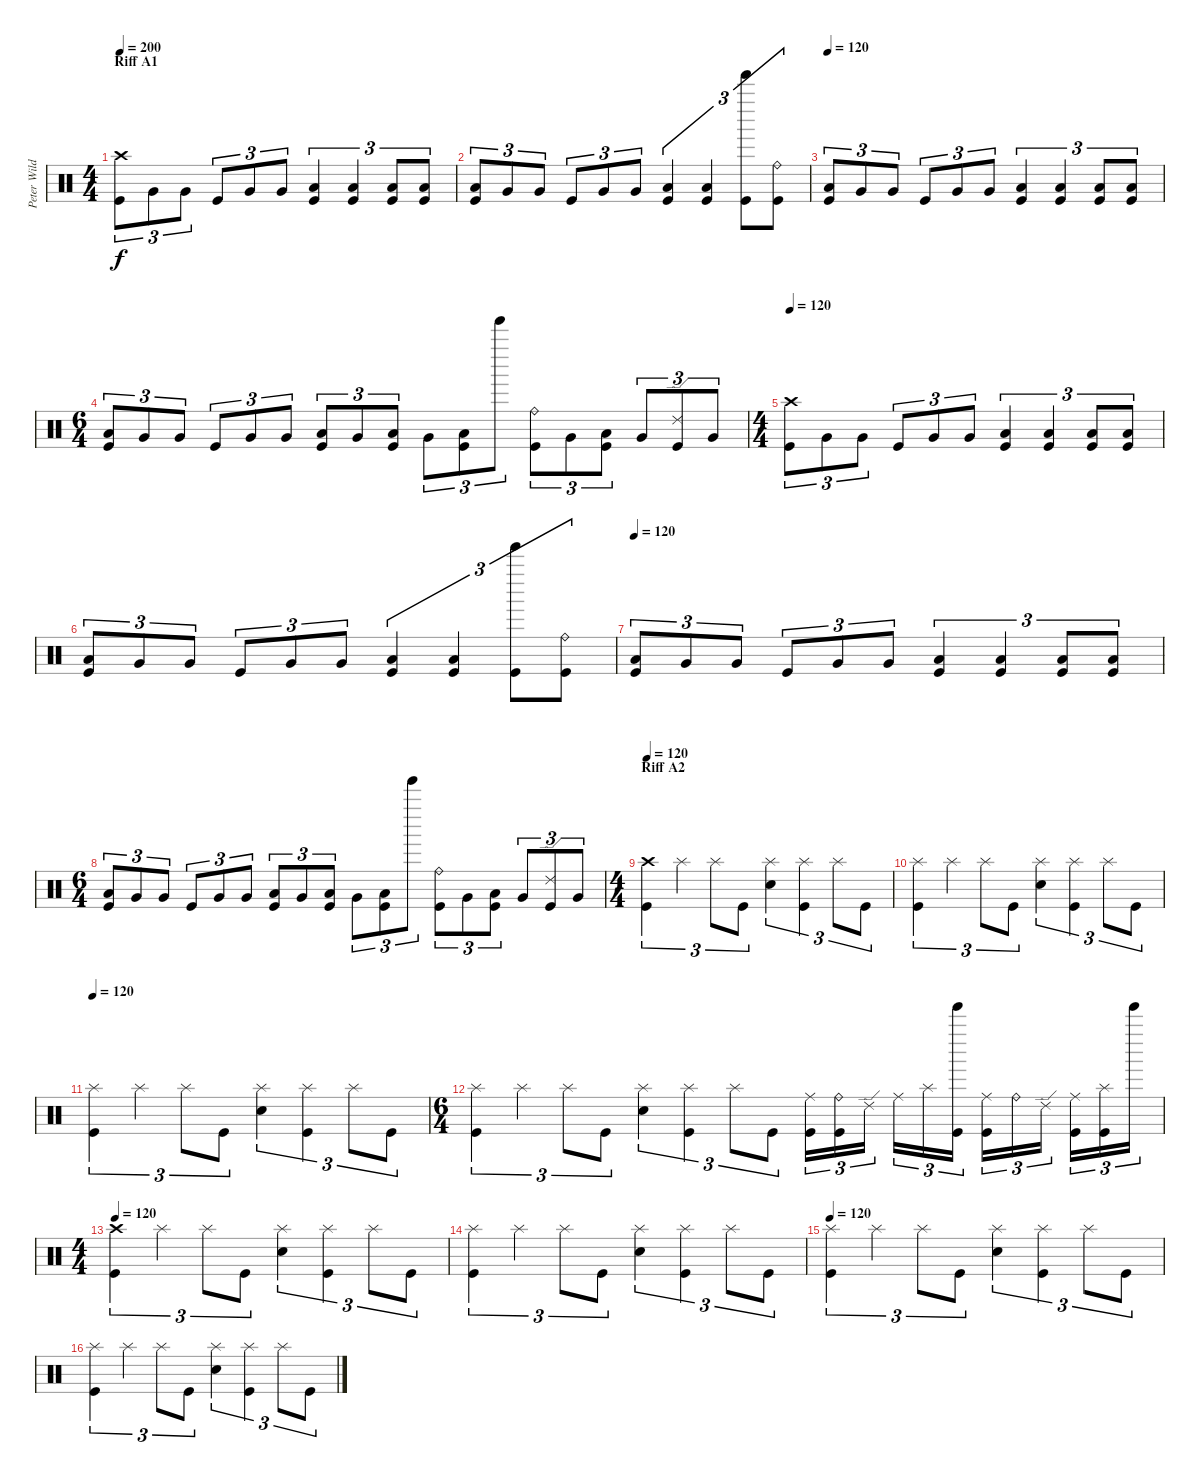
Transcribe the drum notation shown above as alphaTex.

\track ("Peter Wildoer " "Peter Wild") {instrument percussion}
\staff {score}
\articulation defaults
\ts (4 4)
\section ("" "Riff A1")
\tempo 200
\tempo 120
\tempo 200
\clef neutral
\ks c
("Crash high (hit)" "Kick (hit)").8{tu (3 2) dy f} "Very Low Tom (hit)".8{tu (3 2)} "Very Low Tom (hit)".8{tu (3 2)} "Kick (hit)".8{tu (3 2)} "Very Low Tom (hit)".8{tu (3 2)} "Very Low Tom (hit)".8{tu (3 2)} ("Low Floor Tom (hit)" "Kick (hit)").4{tu (3 2)} ("Low Floor Tom (hit)" "Kick (hit)").4{tu (3 2)} ("Low Floor Tom (hit)" "Kick (hit)").8{tu (3 2)} ("Low Floor Tom (hit)" "Kick (hit)").8{tu (3 2)} |
("Low Floor Tom (hit)" "Kick (hit)").8{tu (3 2)} "Very Low Tom (hit)".8{tu (3 2)} "Very Low Tom (hit)".8{tu (3 2)} "Kick (hit)".8{tu (3 2)} "Very Low Tom (hit)".8{tu (3 2)} "Very Low Tom (hit)".8{tu (3 2)} ("Low Floor Tom (hit)" "Kick (hit)").4{tu (3 2)} ("Low Floor Tom (hit)" "Kick (hit)").4{tu (3 2)} ("Tinkle Bell (hit)" "Kick (hit)").8{tu (3 2)} ("Ride (bell)" "Kick (hit)").8{tu (3 2)} |
\tempo 120
("Low Floor Tom (hit)" "Kick (hit)").8{tu (3 2)} "Very Low Tom (hit)".8{tu (3 2)} "Very Low Tom (hit)".8{tu (3 2)} "Kick (hit)".8{tu (3 2)} "Very Low Tom (hit)".8{tu (3 2)} "Very Low Tom (hit)".8{tu (3 2)} ("Low Floor Tom (hit)" "Kick (hit)").4{tu (3 2)} ("Low Floor Tom (hit)" "Kick (hit)").4{tu (3 2)} ("Low Floor Tom (hit)" "Kick (hit)").8{tu (3 2)} ("Low Floor Tom (hit)" "Kick (hit)").8{tu (3 2)} |
\ts (6 4)
("Low Floor Tom (hit)" "Kick (hit)").8{tu (3 2)} "Very Low Tom (hit)".8{tu (3 2)} "Very Low Tom (hit)".8{tu (3 2)} "Kick (hit)".8{tu (3 2)} "Very Low Tom (hit)".8{tu (3 2)} "Very Low Tom (hit)".8{tu (3 2)} ("Low Floor Tom (hit)" "Kick (hit)").8{tu (3 2)} "Very Low Tom (hit)".8{tu (3 2)} ("Low Floor Tom (hit)" "Kick (hit)").8{tu (3 2)} "Very Low Tom (hit)".8{tu (3 2)} ("Low Floor Tom (hit)" "Kick (hit)").8{tu (3 2)} "Tinkle Bell (hit)".8{tu (3 2)} ("Ride (bell)" "Kick (hit)").8{tu (3 2)} "Very Low Tom (hit)".8{tu (3 2)} ("Low Floor Tom (hit)" "Kick (hit)").8{tu (3 2)} "Very Low Tom (hit)".8{tu (3 2)} ("Ride (edge) 2" "Kick (hit)").8{tu (3 2)} "Very Low Tom (hit)".8{tu (3 2)} |
\ts (4 4)
\tempo 120
("Crash high (hit)" "Kick (hit)").8{tu (3 2)} "Very Low Tom (hit)".8{tu (3 2)} "Very Low Tom (hit)".8{tu (3 2)} "Kick (hit)".8{tu (3 2)} "Very Low Tom (hit)".8{tu (3 2)} "Very Low Tom (hit)".8{tu (3 2)} ("Low Floor Tom (hit)" "Kick (hit)").4{tu (3 2)} ("Low Floor Tom (hit)" "Kick (hit)").4{tu (3 2)} ("Low Floor Tom (hit)" "Kick (hit)").8{tu (3 2)} ("Low Floor Tom (hit)" "Kick (hit)").8{tu (3 2)} |
("Low Floor Tom (hit)" "Kick (hit)").8{tu (3 2)} "Very Low Tom (hit)".8{tu (3 2)} "Very Low Tom (hit)".8{tu (3 2)} "Kick (hit)".8{tu (3 2)} "Very Low Tom (hit)".8{tu (3 2)} "Very Low Tom (hit)".8{tu (3 2)} ("Low Floor Tom (hit)" "Kick (hit)").4{tu (3 2)} ("Low Floor Tom (hit)" "Kick (hit)").4{tu (3 2)} ("Tinkle Bell (hit)" "Kick (hit)").8{tu (3 2)} ("Ride (bell)" "Kick (hit)").8{tu (3 2)} |
\tempo 120
("Low Floor Tom (hit)" "Kick (hit)").8{tu (3 2)} "Very Low Tom (hit)".8{tu (3 2)} "Very Low Tom (hit)".8{tu (3 2)} "Kick (hit)".8{tu (3 2)} "Very Low Tom (hit)".8{tu (3 2)} "Very Low Tom (hit)".8{tu (3 2)} ("Low Floor Tom (hit)" "Kick (hit)").4{tu (3 2)} ("Low Floor Tom (hit)" "Kick (hit)").4{tu (3 2)} ("Low Floor Tom (hit)" "Kick (hit)").8{tu (3 2)} ("Low Floor Tom (hit)" "Kick (hit)").8{tu (3 2)} |
\ts (6 4)
("Low Floor Tom (hit)" "Kick (hit)").8{tu (3 2)} "Very Low Tom (hit)".8{tu (3 2)} "Very Low Tom (hit)".8{tu (3 2)} "Kick (hit)".8{tu (3 2)} "Very Low Tom (hit)".8{tu (3 2)} "Very Low Tom (hit)".8{tu (3 2)} ("Low Floor Tom (hit)" "Kick (hit)").8{tu (3 2)} "Very Low Tom (hit)".8{tu (3 2)} ("Low Floor Tom (hit)" "Kick (hit)").8{tu (3 2)} "Very Low Tom (hit)".8{tu (3 2)} ("Low Floor Tom (hit)" "Kick (hit)").8{tu (3 2)} "Tinkle Bell (hit)".8{tu (3 2)} ("Ride (bell)" "Kick (hit)").8{tu (3 2)} "Very Low Tom (hit)".8{tu (3 2)} ("Low Floor Tom (hit)" "Kick (hit)").8{tu (3 2)} "Very Low Tom (hit)".8{tu (3 2)} ("Ride (edge) 2" "Kick (hit)").8{tu (3 2)} "Very Low Tom (hit)".8{tu (3 2)} |
\ts (4 4)
\section ("" "Riff A2")
\tempo 120
("Crash high (hit)" "Kick (hit)").4{tu (3 2)} "Splash (hit)".4{tu (3 2)} "Splash (hit)".8{tu (3 2)} "Kick (hit)".8{tu (3 2)} ("Splash (hit)" "Electric Snare (hit)").4{tu (3 2)} ("Splash (hit)" "Kick (hit)").4{tu (3 2)} "Splash (hit)".8{tu (3 2)} "Kick (hit)".8{tu (3 2)} |
("Splash (hit)" "Kick (hit)").4{tu (3 2)} "Splash (hit)".4{tu (3 2)} "Splash (hit)".8{tu (3 2)} "Kick (hit)".8{tu (3 2)} ("Splash (hit)" "Electric Snare (hit)").4{tu (3 2)} ("Splash (hit)" "Kick (hit)").4{tu (3 2)} "Splash (hit)".8{tu (3 2)} "Kick (hit)".8{tu (3 2)} |
\tempo 120
("Splash (hit)" "Kick (hit)").4{tu (3 2)} "Splash (hit)".4{tu (3 2)} "Splash (hit)".8{tu (3 2)} "Kick (hit)".8{tu (3 2)} ("Splash (hit)" "Electric Snare (hit)").4{tu (3 2)} ("Splash (hit)" "Kick (hit)").4{tu (3 2)} "Splash (hit)".8{tu (3 2)} "Kick (hit)".8{tu (3 2)} |
\ts (6 4)
("Splash (hit)" "Kick (hit)").4{tu (3 2)} "Splash (hit)".4{tu (3 2)} "Splash (hit)".8{tu (3 2)} "Kick (hit)".8{tu (3 2)} ("Splash (hit)" "Electric Snare (hit)").4{tu (3 2)} ("Splash (hit)" "Kick (hit)").4{tu (3 2)} "Splash (hit)".8{tu (3 2)} "Kick (hit)".8{tu (3 2)} ("Ride (middle)" "Kick (hit)").16{tu (3 2)} ("Ride (bell)" "Kick (hit)").16{tu (3 2)} "Ride (edge) 2".16{tu (3 2)} "Ride (middle)".16{tu (3 2)} "Splash (hit)".16{tu (3 2)} ("Tinkle Bell (hit)" "Kick (hit)").16{tu (3 2)} ("Ride (middle)" "Kick (hit)").16{tu (3 2)} "Ride (bell)".16{tu (3 2)} "Ride (edge) 2".16{tu (3 2)} ("Ride (middle)" "Kick (hit)").16{tu (3 2)} ("Splash (hit)" "Kick (hit)").16{tu (3 2)} "Tinkle Bell (hit)".16{tu (3 2)} |
\ts (4 4)
\tempo 120
("Crash high (hit)" "Kick (hit)").4{tu (3 2)} "Splash (hit)".4{tu (3 2)} "Splash (hit)".8{tu (3 2)} "Kick (hit)".8{tu (3 2)} ("Splash (hit)" "Electric Snare (hit)").4{tu (3 2)} ("Splash (hit)" "Kick (hit)").4{tu (3 2)} "Splash (hit)".8{tu (3 2)} "Kick (hit)".8{tu (3 2)} |
("Splash (hit)" "Kick (hit)").4{tu (3 2)} "Splash (hit)".4{tu (3 2)} "Splash (hit)".8{tu (3 2)} "Kick (hit)".8{tu (3 2)} ("Splash (hit)" "Electric Snare (hit)").4{tu (3 2)} ("Splash (hit)" "Kick (hit)").4{tu (3 2)} "Splash (hit)".8{tu (3 2)} "Kick (hit)".8{tu (3 2)} |
\tempo 120
("Splash (hit)" "Kick (hit)").4{tu (3 2)} "Splash (hit)".4{tu (3 2)} "Splash (hit)".8{tu (3 2)} "Kick (hit)".8{tu (3 2)} ("Splash (hit)" "Electric Snare (hit)").4{tu (3 2)} ("Splash (hit)" "Kick (hit)").4{tu (3 2)} "Splash (hit)".8{tu (3 2)} "Kick (hit)".8{tu (3 2)} |
("Splash (hit)" "Kick (hit)").4{tu (3 2)} "Splash (hit)".4{tu (3 2)} "Splash (hit)".8{tu (3 2)} "Kick (hit)".8{tu (3 2)} ("Splash (hit)" "Electric Snare (hit)").4{tu (3 2)} ("Splash (hit)" "Kick (hit)").4{tu (3 2)} "Splash (hit)".8{tu (3 2)} "Kick (hit)".8{tu (3 2)}
